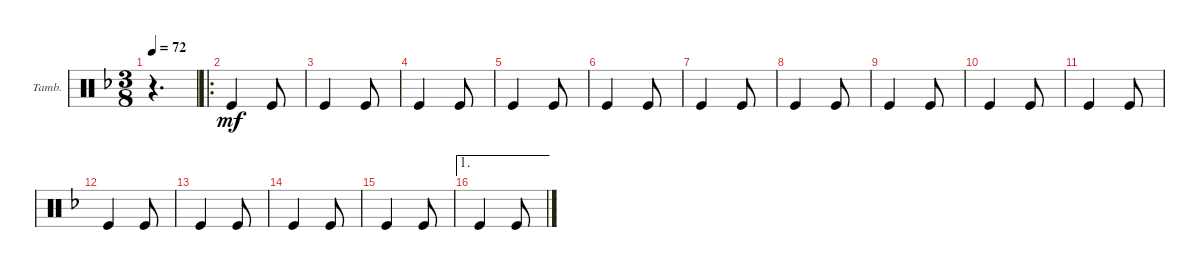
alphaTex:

\defaultSystemsLayout 4
\bracketExtendMode groupsimilarinstruments
\firstSystemTrackNameOrientation horizontal
\otherSystemsTrackNameOrientation horizontal
\track ("Tambourine" "Tamb.") {instrument percussion}
\staff {score}
\articulation defaults
\ts (3 8)
\tempo 72
\clef neutral
\scale
0.474576
\ks f
r.4{d dy mf} |
\ro
\scale
0.288136 "Kick (hit)".4 "Kick (hit)".8 |
\scale
0.237288 "Kick (hit)".4 "Kick (hit)".8 |
\scale
0.333333 "Kick (hit)".4 "Kick (hit)".8 |
\scale
0.333333 "Kick (hit)".4 "Kick (hit)".8 |
\scale
0.333333 "Kick (hit)".4 "Kick (hit)".8 |
\scale
0.333333 "Kick (hit)".4 "Kick (hit)".8 |
\scale
0.333333 "Kick (hit)".4 "Kick (hit)".8 |
\scale
0.333333 "Kick (hit)".4 "Kick (hit)".8 |
\scale
0.333333 "Kick (hit)".4 "Kick (hit)".8 |
\scale
0.333333 "Kick (hit)".4 "Kick (hit)".8 |
\scale
0.333333 "Kick (hit)".4 "Kick (hit)".8 |
\scale
0.333333 "Kick (hit)".4 "Kick (hit)".8 |
\scale
0.333333 "Kick (hit)".4 "Kick (hit)".8 |
\scale
0.333333 "Kick (hit)".4 "Kick (hit)".8 |
\ae 1
\scale
0.321839 "Kick (hit)".4 "Kick (hit)".8
